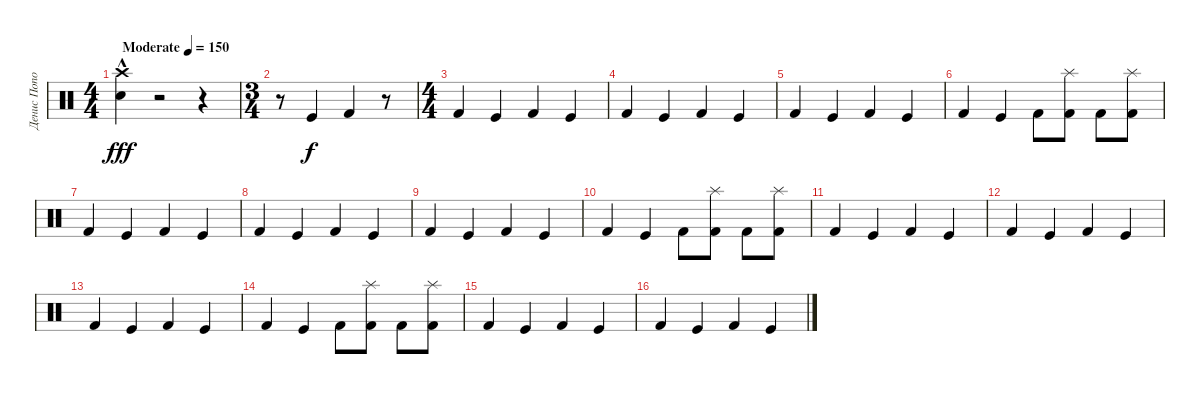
\track ("Денис Попов" "Денис Попо") {instrument percussion}
\staff
\articulation defaults
\ts (4 4)
\tempo (150 "Moderate")
\clef neutral
\ks c
("Crash high (hit)"{hac} "Electric Snare (hit)").4{dy fff} r.2 r.4 |
\ts (3 4)
r.8 "Kick (hit)".4{dy f} "Kick (hit) 2".4 r.8 |
\ts (4 4)
"Kick (hit) 2".4 "Kick (hit)".4 "Kick (hit) 2".4 "Kick (hit)".4 |
"Kick (hit) 2".4 "Kick (hit)".4 "Kick (hit) 2".4 "Kick (hit)".4 |
"Kick (hit) 2".4 "Kick (hit)".4 "Kick (hit) 2".4 "Kick (hit)".4 |
"Kick (hit) 2".4 "Kick (hit)".4 "Kick (hit) 2".8 ("Splash (hit)" "Kick (hit) 2").8 "Kick (hit) 2".8 ("Splash (hit)" "Kick (hit) 2").8 |
"Kick (hit) 2".4 "Kick (hit)".4 "Kick (hit) 2".4 "Kick (hit)".4 |
"Kick (hit) 2".4 "Kick (hit)".4 "Kick (hit) 2".4 "Kick (hit)".4 |
"Kick (hit) 2".4 "Kick (hit)".4 "Kick (hit) 2".4 "Kick (hit)".4 |
"Kick (hit) 2".4 "Kick (hit)".4 "Kick (hit) 2".8 ("Splash (hit)" "Kick (hit) 2").8 "Kick (hit) 2".8 ("Splash (hit)" "Kick (hit) 2").8 |
"Kick (hit) 2".4 "Kick (hit)".4 "Kick (hit) 2".4 "Kick (hit)".4 |
"Kick (hit) 2".4 "Kick (hit)".4 "Kick (hit) 2".4 "Kick (hit)".4 |
"Kick (hit) 2".4 "Kick (hit)".4 "Kick (hit) 2".4 "Kick (hit)".4 |
"Kick (hit) 2".4 "Kick (hit)".4 "Kick (hit) 2".8 ("Splash (hit)" "Kick (hit) 2").8 "Kick (hit) 2".8 ("Splash (hit)" "Kick (hit) 2").8 |
"Kick (hit) 2".4 "Kick (hit)".4 "Kick (hit) 2".4 "Kick (hit)".4 |
"Kick (hit) 2".4 "Kick (hit)".4 "Kick (hit) 2".4 "Kick (hit)".4
